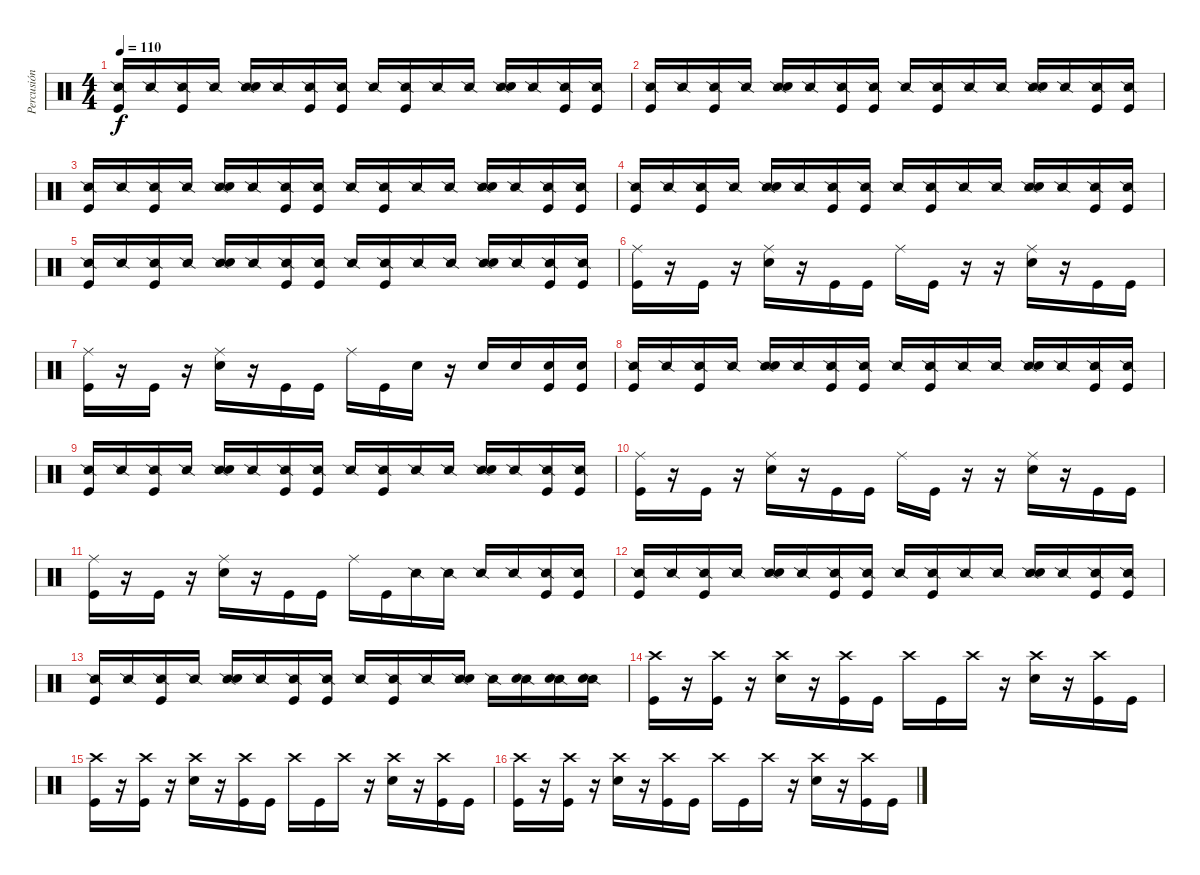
\track ("Percusión" "Percusión") {instrument percussion}
\staff {score}
\articulation defaults
\ts (4 4)
\tempo 110
\clef neutral
\ks c
("Snare (side stick) 2" "Kick (hit)").16{dy f} "Snare (side stick) 2".16 ("Snare (side stick) 2" "Kick (hit)").16 "Snare (side stick) 2".16 ("Snare (side stick) 2" "Electric Snare (hit)").16 "Snare (side stick) 2".16 ("Snare (side stick) 2" "Kick (hit)").16 ("Snare (side stick) 2" "Kick (hit)").16 "Snare (side stick) 2".16 ("Snare (side stick) 2" "Kick (hit)").16 "Snare (side stick) 2".16 "Snare (side stick) 2".16 ("Snare (side stick) 2" "Electric Snare (hit)").16 "Snare (side stick) 2".16 ("Snare (side stick) 2" "Kick (hit)").16 ("Snare (side stick) 2" "Kick (hit)").16 |
("Snare (side stick) 2" "Kick (hit)").16 "Snare (side stick) 2".16 ("Snare (side stick) 2" "Kick (hit)").16 "Snare (side stick) 2".16 ("Snare (side stick) 2" "Electric Snare (hit)").16 "Snare (side stick) 2".16 ("Snare (side stick) 2" "Kick (hit)").16 ("Snare (side stick) 2" "Kick (hit)").16 "Snare (side stick) 2".16 ("Snare (side stick) 2" "Kick (hit)").16 "Snare (side stick) 2".16 "Snare (side stick) 2".16 ("Snare (side stick) 2" "Electric Snare (hit)").16 "Snare (side stick) 2".16 ("Snare (side stick) 2" "Kick (hit)").16 ("Snare (side stick) 2" "Kick (hit)").16 |
("Snare (side stick) 2" "Kick (hit)").16 "Snare (side stick) 2".16 ("Snare (side stick) 2" "Kick (hit)").16 "Snare (side stick) 2".16 ("Snare (side stick) 2" "Electric Snare (hit)").16 "Snare (side stick) 2".16 ("Snare (side stick) 2" "Kick (hit)").16 ("Snare (side stick) 2" "Kick (hit)").16 "Snare (side stick) 2".16 ("Snare (side stick) 2" "Kick (hit)").16 "Snare (side stick) 2".16 "Snare (side stick) 2".16 ("Snare (side stick) 2" "Electric Snare (hit)").16 "Snare (side stick) 2".16 ("Snare (side stick) 2" "Kick (hit)").16 ("Snare (side stick) 2" "Kick (hit)").16 |
("Snare (side stick) 2" "Kick (hit)").16 "Snare (side stick) 2".16 ("Snare (side stick) 2" "Kick (hit)").16 "Snare (side stick) 2".16 ("Snare (side stick) 2" "Electric Snare (hit)").16 "Snare (side stick) 2".16 ("Snare (side stick) 2" "Kick (hit)").16 ("Snare (side stick) 2" "Kick (hit)").16 "Snare (side stick) 2".16 ("Snare (side stick) 2" "Kick (hit)").16 "Snare (side stick) 2".16 "Snare (side stick) 2".16 ("Snare (side stick) 2" "Electric Snare (hit)").16 "Snare (side stick) 2".16 ("Snare (side stick) 2" "Kick (hit)").16 ("Snare (side stick) 2" "Kick (hit)").16 |
("Snare (side stick) 2" "Kick (hit)").16 "Snare (side stick) 2".16 ("Snare (side stick) 2" "Kick (hit)").16 "Snare (side stick) 2".16 ("Snare (side stick) 2" "Electric Snare (hit)").16 "Snare (side stick) 2".16 ("Snare (side stick) 2" "Kick (hit)").16 ("Snare (side stick) 2" "Kick (hit)").16 "Snare (side stick) 2".16 ("Snare (side stick) 2" "Kick (hit)").16 "Snare (side stick) 2".16 "Snare (side stick) 2".16 ("Snare (side stick) 2" "Electric Snare (hit)").16 "Snare (side stick) 2".16 ("Snare (side stick) 2" "Kick (hit)").16 ("Snare (side stick) 2" "Kick (hit)").16 |
("Ride (middle)" "Kick (hit)").16 r.16 "Kick (hit)".16 r.16 ("Ride (middle)" "Electric Snare (hit)").16 r.16 "Kick (hit)".16 "Kick (hit)".16 "Ride (middle)".16 "Kick (hit)".16 r.16 r.16 ("Ride (middle)" "Electric Snare (hit)").16 r.16 "Kick (hit)".16 "Kick (hit)".16 |
("Ride (middle)" "Kick (hit)").16 r.16 "Kick (hit)".16 r.16 ("Ride (middle)" "Electric Snare (hit)").16 r.16 "Kick (hit)".16 "Kick (hit)".16 "Ride (middle)".16 "Kick (hit)".16 "Electric Snare (hit)".16 r.16 "Electric Snare (hit)".16 "Electric Snare (hit)".16 ("Electric Snare (hit)" "Kick (hit)").16 ("Electric Snare (hit)" "Kick (hit)").16 |
("Snare (side stick) 2" "Kick (hit)").16 "Snare (side stick) 2".16 ("Snare (side stick) 2" "Kick (hit)").16 "Snare (side stick) 2".16 ("Snare (side stick) 2" "Electric Snare (hit)").16 "Snare (side stick) 2".16 ("Snare (side stick) 2" "Kick (hit)").16 ("Snare (side stick) 2" "Kick (hit)").16 "Snare (side stick) 2".16 ("Snare (side stick) 2" "Kick (hit)").16 "Snare (side stick) 2".16 "Snare (side stick) 2".16 ("Snare (side stick) 2" "Electric Snare (hit)").16 "Snare (side stick) 2".16 ("Snare (side stick) 2" "Kick (hit)").16 ("Snare (side stick) 2" "Kick (hit)").16 |
("Snare (side stick) 2" "Kick (hit)").16 "Snare (side stick) 2".16 ("Snare (side stick) 2" "Kick (hit)").16 "Snare (side stick) 2".16 ("Snare (side stick) 2" "Electric Snare (hit)").16 "Snare (side stick) 2".16 ("Snare (side stick) 2" "Kick (hit)").16 ("Snare (side stick) 2" "Kick (hit)").16 "Snare (side stick) 2".16 ("Snare (side stick) 2" "Kick (hit)").16 "Snare (side stick) 2".16 "Snare (side stick) 2".16 ("Snare (side stick) 2" "Electric Snare (hit)").16 "Snare (side stick) 2".16 ("Snare (side stick) 2" "Kick (hit)").16 ("Snare (side stick) 2" "Kick (hit)").16 |
("Ride (middle)" "Kick (hit)").16 r.16 "Kick (hit)".16 r.16 ("Ride (middle)" "Electric Snare (hit)").16 r.16 "Kick (hit)".16 "Kick (hit)".16 "Ride (middle)".16 "Kick (hit)".16 r.16 r.16 ("Ride (middle)" "Electric Snare (hit)").16 r.16 "Kick (hit)".16 "Kick (hit)".16 |
("Ride (middle)" "Kick (hit)").16 r.16 "Kick (hit)".16 r.16 ("Ride (middle)" "Electric Snare (hit)").16 r.16 "Kick (hit)".16 "Kick (hit)".16 "Ride (middle)".16 "Kick (hit)".16 "Snare (side stick) 2".16 "Snare (side stick) 2".16 "Snare (side stick) 2".16 "Snare (side stick) 2".16 ("Snare (side stick) 2" "Kick (hit)").16 ("Snare (side stick) 2" "Kick (hit)").16 |
("Snare (side stick) 2" "Kick (hit)").16 "Snare (side stick) 2".16 ("Snare (side stick) 2" "Kick (hit)").16 "Snare (side stick) 2".16 ("Snare (side stick) 2" "Electric Snare (hit)").16 "Snare (side stick) 2".16 ("Snare (side stick) 2" "Kick (hit)").16 ("Snare (side stick) 2" "Kick (hit)").16 "Snare (side stick) 2".16 ("Snare (side stick) 2" "Kick (hit)").16 "Snare (side stick) 2".16 "Snare (side stick) 2".16 ("Snare (side stick) 2" "Electric Snare (hit)").16 "Snare (side stick) 2".16 ("Snare (side stick) 2" "Kick (hit)").16 ("Snare (side stick) 2" "Kick (hit)").16 |
("Snare (side stick) 2" "Kick (hit)").16 "Snare (side stick) 2".16 ("Snare (side stick) 2" "Kick (hit)").16 "Snare (side stick) 2".16 ("Snare (side stick) 2" "Electric Snare (hit)").16 "Snare (side stick) 2".16 ("Snare (side stick) 2" "Kick (hit)").16 ("Snare (side stick) 2" "Kick (hit)").16 "Snare (side stick) 2".16 ("Snare (side stick) 2" "Kick (hit)").16 "Snare (side stick) 2".16 ("Snare (side stick) 2" "Electric Snare (hit)").16 "Snare (side stick) 2".16 ("Snare (side stick) 2" "Electric Snare (hit)").16 ("Snare (side stick) 2" "Electric Snare (hit)").16 ("Snare (side stick) 2" "Electric Snare (hit)").16 |
("Crash high (hit)" "Kick (hit)").16 r.16 ("Crash high (hit)" "Kick (hit)").16 r.16 ("Crash high (hit)" "Electric Snare (hit)").16 r.16 ("Crash high (hit)" "Kick (hit)").16 "Kick (hit)".16 "Crash high (hit)".16 "Kick (hit)".16 "Crash high (hit)".16 r.16 ("Crash high (hit)" "Electric Snare (hit)").16 r.16 ("Crash high (hit)" "Kick (hit)").16 "Kick (hit)".16 |
("Crash high (hit)" "Kick (hit)").16 r.16 ("Crash high (hit)" "Kick (hit)").16 r.16 ("Crash high (hit)" "Electric Snare (hit)").16 r.16 ("Crash high (hit)" "Kick (hit)").16 "Kick (hit)".16 "Crash high (hit)".16 "Kick (hit)".16 "Crash high (hit)".16 r.16 ("Crash high (hit)" "Electric Snare (hit)").16 r.16 ("Crash high (hit)" "Kick (hit)").16 "Kick (hit)".16 |
("Crash high (hit)" "Kick (hit)").16 r.16 ("Crash high (hit)" "Kick (hit)").16 r.16 ("Crash high (hit)" "Electric Snare (hit)").16 r.16 ("Crash high (hit)" "Kick (hit)").16 "Kick (hit)".16 "Crash high (hit)".16 "Kick (hit)".16 "Crash high (hit)".16 r.16 ("Crash high (hit)" "Electric Snare (hit)").16 r.16 ("Crash high (hit)" "Kick (hit)").16 "Kick (hit)".16
